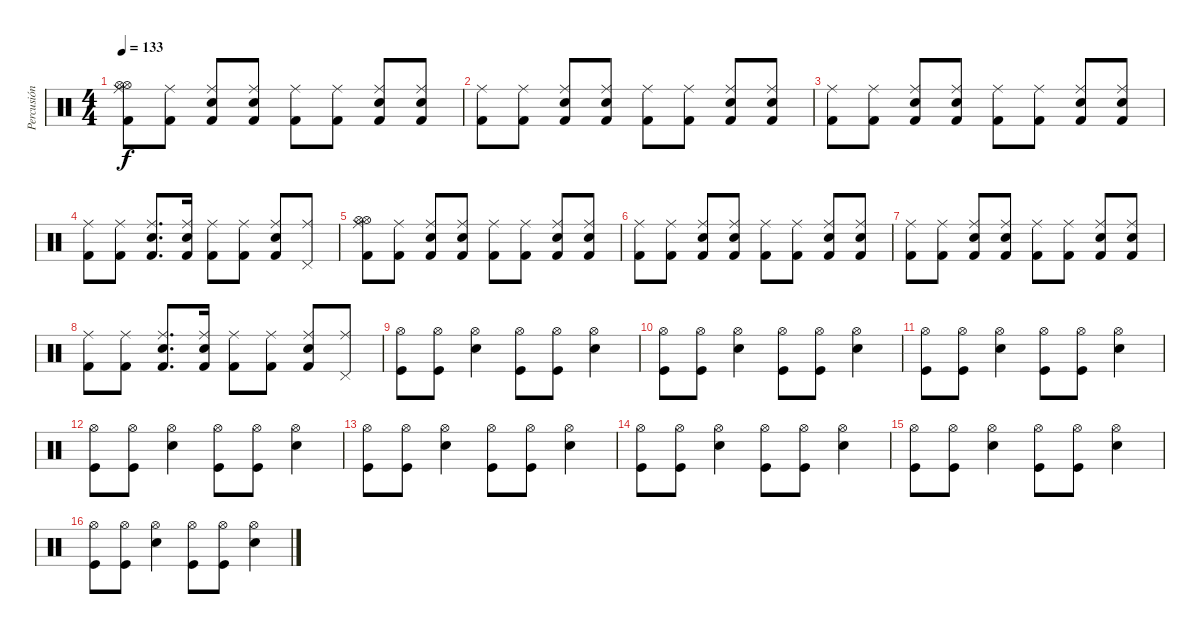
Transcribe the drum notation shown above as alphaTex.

\track ("Percusión" "Percusión") {instrument percussion}
\staff {score}
\articulation defaults
\ts (4 4)
\tempo 133
\clef neutral
\ks c
("Kick (hit) 2" "Ride (middle)" "Hi-Hat (open)" "Hi-Hat (open)").8{dy f} ("Kick (hit) 2" "Ride (middle)").8 ("Kick (hit) 2" "Snare (hit) 2" "Ride (middle)").8 ("Kick (hit) 2" "Snare (hit) 2" "Ride (middle)").8 ("Kick (hit) 2" "Ride (middle)").8 ("Kick (hit) 2" "Ride (middle)").8 ("Kick (hit) 2" "Snare (hit) 2" "Ride (middle)").8 ("Kick (hit) 2" "Snare (hit) 2" "Ride (middle)").8 |
("Kick (hit) 2" "Ride (middle)").8 ("Kick (hit) 2" "Ride (middle)").8 ("Kick (hit) 2" "Snare (hit) 2" "Ride (middle)").8 ("Kick (hit) 2" "Snare (hit) 2" "Ride (middle)").8 ("Kick (hit) 2" "Ride (middle)").8 ("Kick (hit) 2" "Ride (middle)").8 ("Kick (hit) 2" "Snare (hit) 2" "Ride (middle)").8 ("Kick (hit) 2" "Snare (hit) 2" "Ride (middle)").8 |
("Kick (hit) 2" "Ride (middle)").8 ("Kick (hit) 2" "Ride (middle)").8 ("Kick (hit) 2" "Snare (hit) 2" "Ride (middle)").8 ("Kick (hit) 2" "Snare (hit) 2" "Ride (middle)").8 ("Kick (hit) 2" "Ride (middle)").8 ("Kick (hit) 2" "Ride (middle)").8 ("Kick (hit) 2" "Snare (hit) 2" "Ride (middle)").8 ("Kick (hit) 2" "Snare (hit) 2" "Ride (middle)").8 |
("Kick (hit) 2" "Ride (middle)").8 ("Kick (hit) 2" "Ride (middle)").8 ("Kick (hit) 2" "Snare (hit) 2" "Ride (middle)").8{d} ("Kick (hit) 2" "Snare (hit) 2" "Ride (middle)").16 ("Kick (hit) 2" "Ride (middle)").8 ("Kick (hit) 2" "Ride (middle)").8 ("Kick (hit) 2" "Snare (hit) 2" "Ride (middle)").8 ("Pedal Hi-Hat (hit)" "Ride (middle)").8 |
("Kick (hit) 2" "Ride (middle)" "Hi-Hat (open)" "Hi-Hat (open)").8 ("Kick (hit) 2" "Ride (middle)").8 ("Kick (hit) 2" "Snare (hit) 2" "Ride (middle)").8 ("Kick (hit) 2" "Snare (hit) 2" "Ride (middle)").8 ("Kick (hit) 2" "Ride (middle)").8 ("Kick (hit) 2" "Ride (middle)").8 ("Kick (hit) 2" "Snare (hit) 2" "Ride (middle)").8 ("Kick (hit) 2" "Snare (hit) 2" "Ride (middle)").8 |
("Kick (hit) 2" "Ride (middle)").8 ("Kick (hit) 2" "Ride (middle)").8 ("Kick (hit) 2" "Snare (hit) 2" "Ride (middle)").8 ("Kick (hit) 2" "Snare (hit) 2" "Ride (middle)").8 ("Kick (hit) 2" "Ride (middle)").8 ("Kick (hit) 2" "Ride (middle)").8 ("Kick (hit) 2" "Snare (hit) 2" "Ride (middle)").8 ("Kick (hit) 2" "Snare (hit) 2" "Ride (middle)").8 |
("Kick (hit) 2" "Ride (middle)").8 ("Kick (hit) 2" "Ride (middle)").8 ("Kick (hit) 2" "Snare (hit) 2" "Ride (middle)").8 ("Kick (hit) 2" "Snare (hit) 2" "Ride (middle)").8 ("Kick (hit) 2" "Ride (middle)").8 ("Kick (hit) 2" "Ride (middle)").8 ("Kick (hit) 2" "Snare (hit) 2" "Ride (middle)").8 ("Kick (hit) 2" "Snare (hit) 2" "Ride (middle)").8 |
("Kick (hit) 2" "Ride (middle)").8 ("Kick (hit) 2" "Ride (middle)").8 ("Kick (hit) 2" "Snare (hit) 2" "Ride (middle)").8{d} ("Kick (hit) 2" "Snare (hit) 2" "Ride (middle)").16 ("Kick (hit) 2" "Ride (middle)").8 ("Kick (hit) 2" "Ride (middle)").8 ("Kick (hit) 2" "Snare (hit) 2" "Ride (middle)").8 ("Pedal Hi-Hat (hit)" "Ride (middle)").8 |
("Kick (hit)" "Hi-Hat (open)").8 ("Kick (hit)" "Hi-Hat (open)").8 ("Snare (hit) 2" "Hi-Hat (open)").4 ("Kick (hit)" "Hi-Hat (open)").8 ("Kick (hit)" "Hi-Hat (open)").8 ("Snare (hit) 2" "Hi-Hat (open)").4 |
("Kick (hit)" "Hi-Hat (open)").8 ("Kick (hit)" "Hi-Hat (open)").8 ("Snare (hit) 2" "Hi-Hat (open)").4 ("Kick (hit)" "Hi-Hat (open)").8 ("Kick (hit)" "Hi-Hat (open)").8 ("Snare (hit) 2" "Hi-Hat (open)").4 |
("Kick (hit)" "Hi-Hat (open)").8 ("Kick (hit)" "Hi-Hat (open)").8 ("Snare (hit) 2" "Hi-Hat (open)").4 ("Kick (hit)" "Hi-Hat (open)").8 ("Kick (hit)" "Hi-Hat (open)").8 ("Snare (hit) 2" "Hi-Hat (open)").4 |
("Kick (hit)" "Hi-Hat (open)").8 ("Kick (hit)" "Hi-Hat (open)").8 ("Snare (hit) 2" "Hi-Hat (open)").4 ("Kick (hit)" "Hi-Hat (open)").8 ("Kick (hit)" "Hi-Hat (open)").8 ("Snare (hit) 2" "Hi-Hat (open)").4 |
("Kick (hit)" "Hi-Hat (open)").8 ("Kick (hit)" "Hi-Hat (open)").8 ("Snare (hit) 2" "Hi-Hat (open)").4 ("Kick (hit)" "Hi-Hat (open)").8 ("Kick (hit)" "Hi-Hat (open)").8 ("Snare (hit) 2" "Hi-Hat (open)").4 |
("Kick (hit)" "Hi-Hat (open)").8 ("Kick (hit)" "Hi-Hat (open)").8 ("Snare (hit) 2" "Hi-Hat (open)").4 ("Kick (hit)" "Hi-Hat (open)").8 ("Kick (hit)" "Hi-Hat (open)").8 ("Snare (hit) 2" "Hi-Hat (open)").4 |
("Kick (hit)" "Hi-Hat (open)").8 ("Kick (hit)" "Hi-Hat (open)").8 ("Snare (hit) 2" "Hi-Hat (open)").4 ("Kick (hit)" "Hi-Hat (open)").8 ("Kick (hit)" "Hi-Hat (open)").8 ("Snare (hit) 2" "Hi-Hat (open)").4 |
("Kick (hit)" "Hi-Hat (open)").8 ("Kick (hit)" "Hi-Hat (open)").8 ("Snare (hit) 2" "Hi-Hat (open)").4 ("Kick (hit)" "Hi-Hat (open)").8 ("Kick (hit)" "Hi-Hat (open)").8 ("Snare (hit) 2" "Hi-Hat (open)").4
